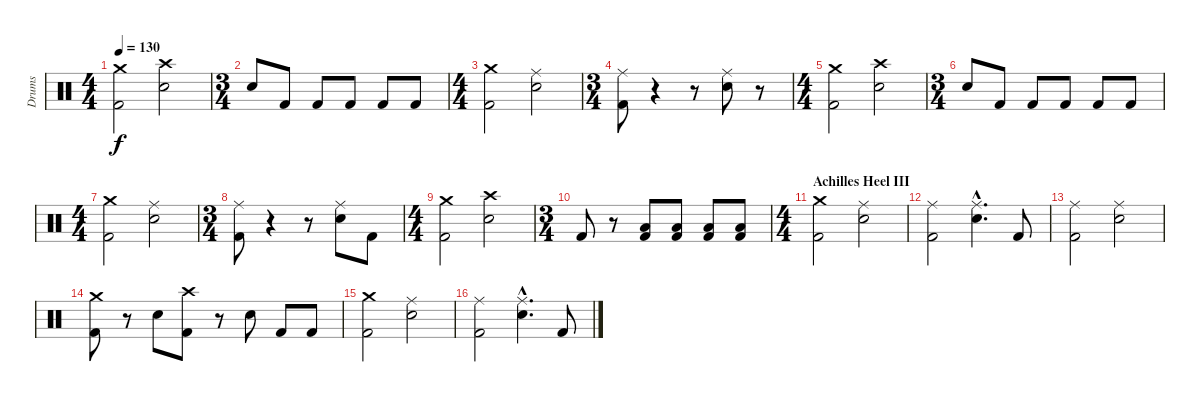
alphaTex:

\track ("Drums" "Drums") {instrument percussion}
\staff {score}
\articulation defaults
\ts (4 4)
\tempo 130
\clef neutral
\ks c
("Crash medium (hit)" "Kick (hit) 2").2{dy f} ("Crash high (hit)" "Electric Snare (hit)").2 |
\ts (3 4)
"Electric Snare (hit)".8 "Kick (hit) 2".8 "Kick (hit) 2".8 "Kick (hit) 2".8 "Kick (hit) 2".8 "Kick (hit) 2".8 |
\ts (4 4)
("Crash medium (hit)" "Kick (hit) 2").2 ("Ride (middle)" "Electric Snare (hit)").2 |
\ts (3 4)
("Ride (middle)" "Kick (hit) 2").8 r.4 r.8 ("Ride (middle)" "Electric Snare (hit)").8 r.8 |
\ts (4 4)
("Crash medium (hit)" "Kick (hit) 2").2 ("Crash high (hit)" "Electric Snare (hit)").2 |
\ts (3 4)
"Electric Snare (hit)".8 "Kick (hit) 2".8 "Kick (hit) 2".8 "Kick (hit) 2".8 "Kick (hit) 2".8 "Kick (hit) 2".8 |
\ts (4 4)
("Crash medium (hit)" "Kick (hit) 2").2 ("Ride (middle)" "Electric Snare (hit)").2 |
\ts (3 4)
("Ride (middle)" "Kick (hit) 2").8 r.4 r.8 ("Ride (middle)" "Electric Snare (hit)").8 "Kick (hit) 2".8 |
\ts (4 4)
("Crash medium (hit)" "Kick (hit) 2").2 ("Crash high (hit)" "Electric Snare (hit)").2 |
\ts (3 4)
"Kick (hit) 2".8 r.8 ("Low Floor Tom (hit)" "Kick (hit) 2").8 ("Low Floor Tom (hit)" "Kick (hit) 2").8 ("Low Floor Tom (hit)" "Kick (hit) 2").8 ("Low Floor Tom (hit)" "Kick (hit) 2").8 |
\ts (4 4)
\section ("" "Achilles Heel III")
("Crash medium (hit)" "Kick (hit) 2").2 ("Ride (middle)" "Electric Snare (hit)").2 |
("Ride (middle)" "Kick (hit) 2").2 ("Ride (middle)"{hac} "Electric Snare (hit)"{hac}).4{d} "Kick (hit) 2".8 |
("Ride (middle)" "Kick (hit) 2").2 ("Ride (middle)" "Electric Snare (hit)").2 |
("Crash medium (hit)" "Kick (hit) 2").8 r.8 "Electric Snare (hit)".8 ("Crash high (hit)" "Kick (hit) 2").8 r.8 "Electric Snare (hit)".8 "Kick (hit) 2".8 "Kick (hit) 2".8 |
("Crash medium (hit)" "Kick (hit) 2").2 ("Ride (middle)" "Electric Snare (hit)").2 |
("Ride (middle)" "Kick (hit) 2").2 ("Ride (middle)"{hac} "Electric Snare (hit)"{hac}).4{d} "Kick (hit) 2".8
